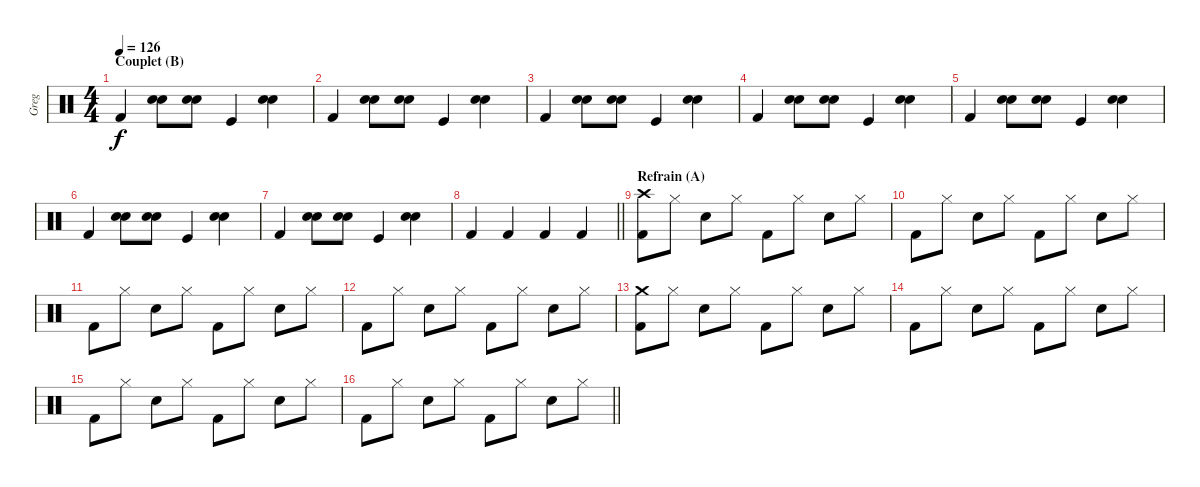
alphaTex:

\track ("Greg" "Greg") {instrument percussion}
\staff {score}
\articulation defaults
\ts (4 4)
\section ("" "Couplet (B)")
\tempo 126
\clef neutral
\ks c "Kick (hit) 2".4{dy f}
("Electric Snare (hit)" "Hand Clap (hit)").8 ("Electric Snare (hit)" "Hand Clap (hit)").8 "Kick (hit)".4 ("Electric Snare (hit)" "Hand Clap (hit)").4 |
"Kick (hit) 2".4 ("Electric Snare (hit)" "Hand Clap (hit)").8 ("Electric Snare (hit)" "Hand Clap (hit)").8 "Kick (hit)".4 ("Electric Snare (hit)" "Hand Clap (hit)").4 |
"Kick (hit) 2".4 ("Electric Snare (hit)" "Hand Clap (hit)").8 ("Electric Snare (hit)" "Hand Clap (hit)").8 "Kick (hit)".4 ("Electric Snare (hit)" "Hand Clap (hit)").4 |
"Kick (hit) 2".4 ("Electric Snare (hit)" "Hand Clap (hit)").8 ("Electric Snare (hit)" "Hand Clap (hit)").8 "Kick (hit)".4 ("Electric Snare (hit)" "Hand Clap (hit)").4 |
"Kick (hit) 2".4 ("Electric Snare (hit)" "Hand Clap (hit)").8 ("Electric Snare (hit)" "Hand Clap (hit)").8 "Kick (hit)".4 ("Electric Snare (hit)" "Hand Clap (hit)").4 |
"Kick (hit) 2".4 ("Electric Snare (hit)" "Hand Clap (hit)").8 ("Electric Snare (hit)" "Hand Clap (hit)").8 "Kick (hit)".4 ("Electric Snare (hit)" "Hand Clap (hit)").4 |
"Kick (hit) 2".4 ("Electric Snare (hit)" "Hand Clap (hit)").8 ("Electric Snare (hit)" "Hand Clap (hit)").8 "Kick (hit)".4 ("Electric Snare (hit)" "Hand Clap (hit)").4 |
\barLineRight lightlight "Kick (hit) 2".4 "Kick (hit) 2".4 "Kick (hit) 2".4 "Kick (hit) 2".4
|
\section ("" "Refrain (A)")
("Crash high (hit)" "Kick (hit) 2").8 "Hi-Hat (closed)".8 "Electric Snare (hit)".8 "Hi-Hat (closed)".8 "Kick (hit) 2".8 "Hi-Hat (closed)".8 "Electric Snare (hit)".8 "Hi-Hat (closed)".8 |
"Kick (hit) 2".8 "Hi-Hat (closed)".8 "Electric Snare (hit)".8 "Hi-Hat (closed)".8 "Kick (hit) 2".8 "Hi-Hat (closed)".8 "Electric Snare (hit)".8 "Hi-Hat (closed)".8 |
"Kick (hit) 2".8 "Hi-Hat (closed)".8 "Electric Snare (hit)".8 "Hi-Hat (closed)".8 "Kick (hit) 2".8 "Hi-Hat (closed)".8 "Electric Snare (hit)".8 "Hi-Hat (closed)".8 |
"Kick (hit) 2".8 "Hi-Hat (closed)".8 "Electric Snare (hit)".8 "Hi-Hat (closed)".8 "Kick (hit) 2".8 "Hi-Hat (closed)".8 "Electric Snare (hit)".8 "Hi-Hat (closed)".8 |
("Crash medium (hit)" "Kick (hit) 2").8 "Hi-Hat (closed)".8 "Electric Snare (hit)".8 "Hi-Hat (closed)".8 "Kick (hit) 2".8 "Hi-Hat (closed)".8 "Electric Snare (hit)".8 "Hi-Hat (closed)".8 |
"Kick (hit) 2".8 "Hi-Hat (closed)".8 "Electric Snare (hit)".8 "Hi-Hat (closed)".8 "Kick (hit) 2".8 "Hi-Hat (closed)".8 "Electric Snare (hit)".8 "Hi-Hat (closed)".8 |
"Kick (hit) 2".8 "Hi-Hat (closed)".8 "Electric Snare (hit)".8 "Hi-Hat (closed)".8 "Kick (hit) 2".8 "Hi-Hat (closed)".8 "Electric Snare (hit)".8 "Hi-Hat (closed)".8 |
\barLineRight lightlight "Kick (hit) 2".8 "Hi-Hat (closed)".8 "Electric Snare (hit)".8 "Hi-Hat (closed)".8 "Kick (hit) 2".8 "Hi-Hat (closed)".8 "Electric Snare (hit)".8 "Hi-Hat (closed)".8
